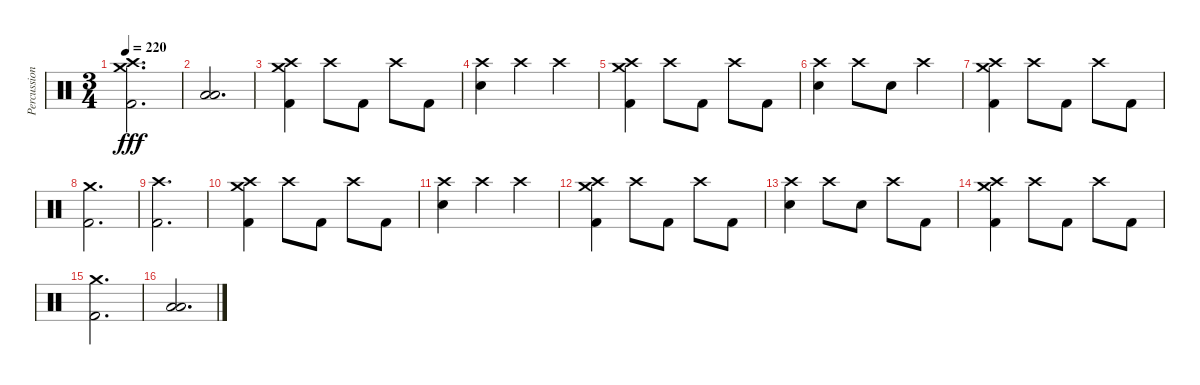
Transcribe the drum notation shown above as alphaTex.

\track ("Percussions" "Percussion") {instrument percussion}
\staff {score}
\articulation defaults
\ts (3 4)
\tempo 220
\clef neutral
\ks c
("Crash medium (hit)" "Crash high (hit)" "Kick (hit) 2").2{d dy fff} |
("Low Tom (hit)" "Low Floor Tom (hit)").2{d bd 240} |
("Crash high (hit)" "Crash medium (hit)" "Kick (hit) 2").4{bd 240} "Crash high (hit)".8 "Kick (hit) 2".8 "Crash high (hit)".8 "Kick (hit) 2".8 |
("Crash high (hit)" "Electric Snare (hit)").4 "Crash high (hit)".4 "Crash high (hit)".4 |
("Crash high (hit)" "Crash medium (hit)" "Kick (hit) 2").4 "Crash high (hit)".8 "Kick (hit) 2".8 "Crash high (hit)".8 "Kick (hit) 2".8 |
("Crash high (hit)" "Electric Snare (hit)").4 "Crash high (hit)".8 "Electric Snare (hit)".8 "Crash high (hit)".4 |
("Crash high (hit)" "Crash medium (hit)" "Kick (hit) 2").4 "Crash high (hit)".8 "Kick (hit) 2".8 "Crash high (hit)".8 "Kick (hit) 2".8 |
("Crash medium (hit)" "Kick (hit) 2").2{d} |
("Crash high (hit)" "Kick (hit) 2").2{d} |
("Crash high (hit)" "Crash medium (hit)" "Kick (hit) 2").4{bd 240} "Crash high (hit)".8 "Kick (hit) 2".8 "Crash high (hit)".8 "Kick (hit) 2".8 |
("Crash high (hit)" "Electric Snare (hit)").4 "Crash high (hit)".4 "Crash high (hit)".4 |
("Crash high (hit)" "Crash medium (hit)" "Kick (hit) 2").4 "Crash high (hit)".8 "Kick (hit) 2".8 "Crash high (hit)".8 "Kick (hit) 2".8 |
("Crash high (hit)" "Electric Snare (hit)").4 "Crash high (hit)".8 "Electric Snare (hit)".8 "Crash high (hit)".8 "Kick (hit) 2".8 |
("Crash high (hit)" "Crash medium (hit)" "Kick (hit) 2").4 "Crash high (hit)".8 "Kick (hit) 2".8 "Crash high (hit)".8 "Kick (hit) 2".8 |
("Crash medium (hit)" "Kick (hit) 2").2{d} |
("Low Tom (hit)" "Low Floor Tom (hit)").2{d bd 240}
